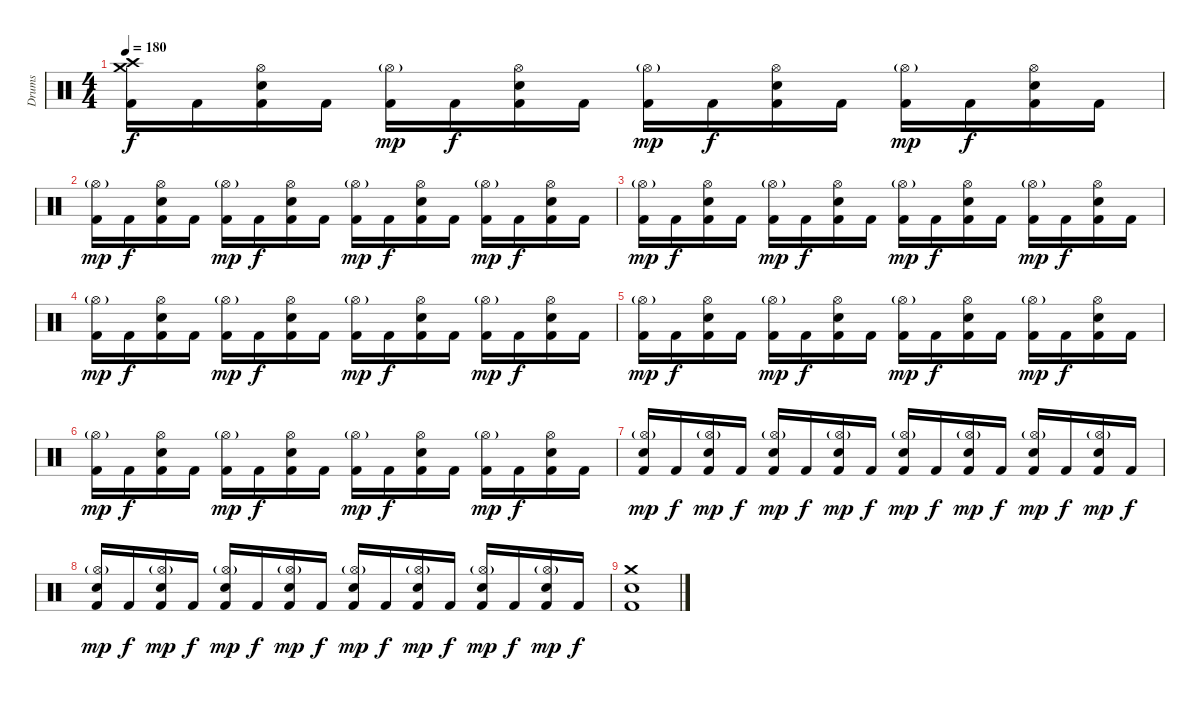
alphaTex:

\track ("Drums" "Drums") {instrument percussion}
\staff {score}
\articulation defaults
\ts (4 4)
\tempo 180
\clef neutral
\ks c
("Crash medium (hit)" "Crash high (hit)" "Kick (hit) 2").16{dy f} "Kick (hit) 2".16 ("Hi-Hat (open)" "Electric Snare (hit)" "Kick (hit) 2").16 "Kick (hit) 2".16 ("Hi-Hat (open)"{g} "Kick (hit) 2").16{dy mp} "Kick (hit) 2".16{dy f} ("Hi-Hat (open)" "Electric Snare (hit)" "Kick (hit) 2").16 "Kick (hit) 2".16 ("Hi-Hat (open)"{g} "Kick (hit) 2").16{dy mp} "Kick (hit) 2".16{dy f} ("Hi-Hat (open)" "Electric Snare (hit)" "Kick (hit) 2").16 "Kick (hit) 2".16 ("Hi-Hat (open)"{g} "Kick (hit) 2").16{dy mp} "Kick (hit) 2".16{dy f} ("Hi-Hat (open)" "Electric Snare (hit)" "Kick (hit) 2").16 "Kick (hit) 2".16 |
("Hi-Hat (open)"{g} "Kick (hit) 2").16{dy mp} "Kick (hit) 2".16{dy f} ("Hi-Hat (open)" "Electric Snare (hit)" "Kick (hit) 2").16 "Kick (hit) 2".16 ("Hi-Hat (open)"{g} "Kick (hit) 2").16{dy mp} "Kick (hit) 2".16{dy f} ("Hi-Hat (open)" "Electric Snare (hit)" "Kick (hit) 2").16 "Kick (hit) 2".16 ("Hi-Hat (open)"{g} "Kick (hit) 2").16{dy mp} "Kick (hit) 2".16{dy f} ("Hi-Hat (open)" "Electric Snare (hit)" "Kick (hit) 2").16 "Kick (hit) 2".16 ("Hi-Hat (open)"{g} "Kick (hit) 2").16{dy mp} "Kick (hit) 2".16{dy f} ("Hi-Hat (open)" "Electric Snare (hit)" "Kick (hit) 2").16 "Kick (hit) 2".16 |
("Hi-Hat (open)"{g} "Kick (hit) 2").16{dy mp} "Kick (hit) 2".16{dy f} ("Hi-Hat (open)" "Electric Snare (hit)" "Kick (hit) 2").16 "Kick (hit) 2".16 ("Hi-Hat (open)"{g} "Kick (hit) 2").16{dy mp} "Kick (hit) 2".16{dy f} ("Hi-Hat (open)" "Electric Snare (hit)" "Kick (hit) 2").16 "Kick (hit) 2".16 ("Hi-Hat (open)"{g} "Kick (hit) 2").16{dy mp} "Kick (hit) 2".16{dy f} ("Hi-Hat (open)" "Electric Snare (hit)" "Kick (hit) 2").16 "Kick (hit) 2".16 ("Hi-Hat (open)"{g} "Kick (hit) 2").16{dy mp} "Kick (hit) 2".16{dy f} ("Hi-Hat (open)" "Electric Snare (hit)" "Kick (hit) 2").16 "Kick (hit) 2".16 |
("Hi-Hat (open)"{g} "Kick (hit) 2").16{dy mp} "Kick (hit) 2".16{dy f} ("Hi-Hat (open)" "Electric Snare (hit)" "Kick (hit) 2").16 "Kick (hit) 2".16 ("Hi-Hat (open)"{g} "Kick (hit) 2").16{dy mp} "Kick (hit) 2".16{dy f} ("Hi-Hat (open)" "Electric Snare (hit)" "Kick (hit) 2").16 "Kick (hit) 2".16 ("Hi-Hat (open)"{g} "Kick (hit) 2").16{dy mp} "Kick (hit) 2".16{dy f} ("Hi-Hat (open)" "Electric Snare (hit)" "Kick (hit) 2").16 "Kick (hit) 2".16 ("Hi-Hat (open)"{g} "Kick (hit) 2").16{dy mp} "Kick (hit) 2".16{dy f} ("Hi-Hat (open)" "Electric Snare (hit)" "Kick (hit) 2").16 "Kick (hit) 2".16 |
("Hi-Hat (open)"{g} "Kick (hit) 2").16{dy mp} "Kick (hit) 2".16{dy f} ("Hi-Hat (open)" "Electric Snare (hit)" "Kick (hit) 2").16 "Kick (hit) 2".16 ("Hi-Hat (open)"{g} "Kick (hit) 2").16{dy mp} "Kick (hit) 2".16{dy f} ("Hi-Hat (open)" "Electric Snare (hit)" "Kick (hit) 2").16 "Kick (hit) 2".16 ("Hi-Hat (open)"{g} "Kick (hit) 2").16{dy mp} "Kick (hit) 2".16{dy f} ("Hi-Hat (open)" "Electric Snare (hit)" "Kick (hit) 2").16 "Kick (hit) 2".16 ("Hi-Hat (open)"{g} "Kick (hit) 2").16{dy mp} "Kick (hit) 2".16{dy f} ("Hi-Hat (open)" "Electric Snare (hit)" "Kick (hit) 2").16 "Kick (hit) 2".16 |
("Hi-Hat (open)"{g} "Kick (hit) 2").16{dy mp} "Kick (hit) 2".16{dy f} ("Hi-Hat (open)" "Electric Snare (hit)" "Kick (hit) 2").16 "Kick (hit) 2".16 ("Hi-Hat (open)"{g} "Kick (hit) 2").16{dy mp} "Kick (hit) 2".16{dy f} ("Hi-Hat (open)" "Electric Snare (hit)" "Kick (hit) 2").16 "Kick (hit) 2".16 ("Hi-Hat (open)"{g} "Kick (hit) 2").16{dy mp} "Kick (hit) 2".16{dy f} ("Hi-Hat (open)" "Electric Snare (hit)" "Kick (hit) 2").16 "Kick (hit) 2".16 ("Hi-Hat (open)"{g} "Kick (hit) 2").16{dy mp} "Kick (hit) 2".16{dy f} ("Hi-Hat (open)" "Electric Snare (hit)" "Kick (hit) 2").16 "Kick (hit) 2".16 |
("Hi-Hat (open)"{g} "Electric Snare (hit)" "Kick (hit) 2").16{dy mp} "Kick (hit) 2".16{dy f} ("Hi-Hat (open)"{g} "Electric Snare (hit)" "Kick (hit) 2").16{dy mp} "Kick (hit) 2".16{dy f} ("Hi-Hat (open)"{g} "Electric Snare (hit)" "Kick (hit) 2").16{dy mp} "Kick (hit) 2".16{dy f} ("Hi-Hat (open)"{g} "Electric Snare (hit)" "Kick (hit) 2").16{dy mp} "Kick (hit) 2".16{dy f} ("Hi-Hat (open)"{g} "Electric Snare (hit)" "Kick (hit) 2").16{dy mp} "Kick (hit) 2".16{dy f} ("Hi-Hat (open)"{g} "Electric Snare (hit)" "Kick (hit) 2").16{dy mp} "Kick (hit) 2".16{dy f} ("Hi-Hat (open)"{g} "Electric Snare (hit)" "Kick (hit) 2").16{dy mp} "Kick (hit) 2".16{dy f} ("Hi-Hat (open)"{g} "Electric Snare (hit)" "Kick (hit) 2").16{dy mp} "Kick (hit) 2".16{dy f} |
("Hi-Hat (open)"{g} "Electric Snare (hit)" "Kick (hit) 2").16{dy mp} "Kick (hit) 2".16{dy f} ("Hi-Hat (open)"{g} "Electric Snare (hit)" "Kick (hit) 2").16{dy mp} "Kick (hit) 2".16{dy f} ("Hi-Hat (open)"{g} "Electric Snare (hit)" "Kick (hit) 2").16{dy mp} "Kick (hit) 2".16{dy f} ("Hi-Hat (open)"{g} "Electric Snare (hit)" "Kick (hit) 2").16{dy mp} "Kick (hit) 2".16{dy f} ("Hi-Hat (open)"{g} "Electric Snare (hit)" "Kick (hit) 2").16{dy mp} "Kick (hit) 2".16{dy f} ("Hi-Hat (open)"{g} "Electric Snare (hit)" "Kick (hit) 2").16{dy mp} "Kick (hit) 2".16{dy f} ("Hi-Hat (open)"{g} "Electric Snare (hit)" "Kick (hit) 2").16{dy mp} "Kick (hit) 2".16{dy f} ("Hi-Hat (open)"{g} "Electric Snare (hit)" "Kick (hit) 2").16{dy mp} "Kick (hit) 2".16{dy f} |
("Crash medium (hit)" "Electric Snare (hit)" "Kick (hit) 2").1
